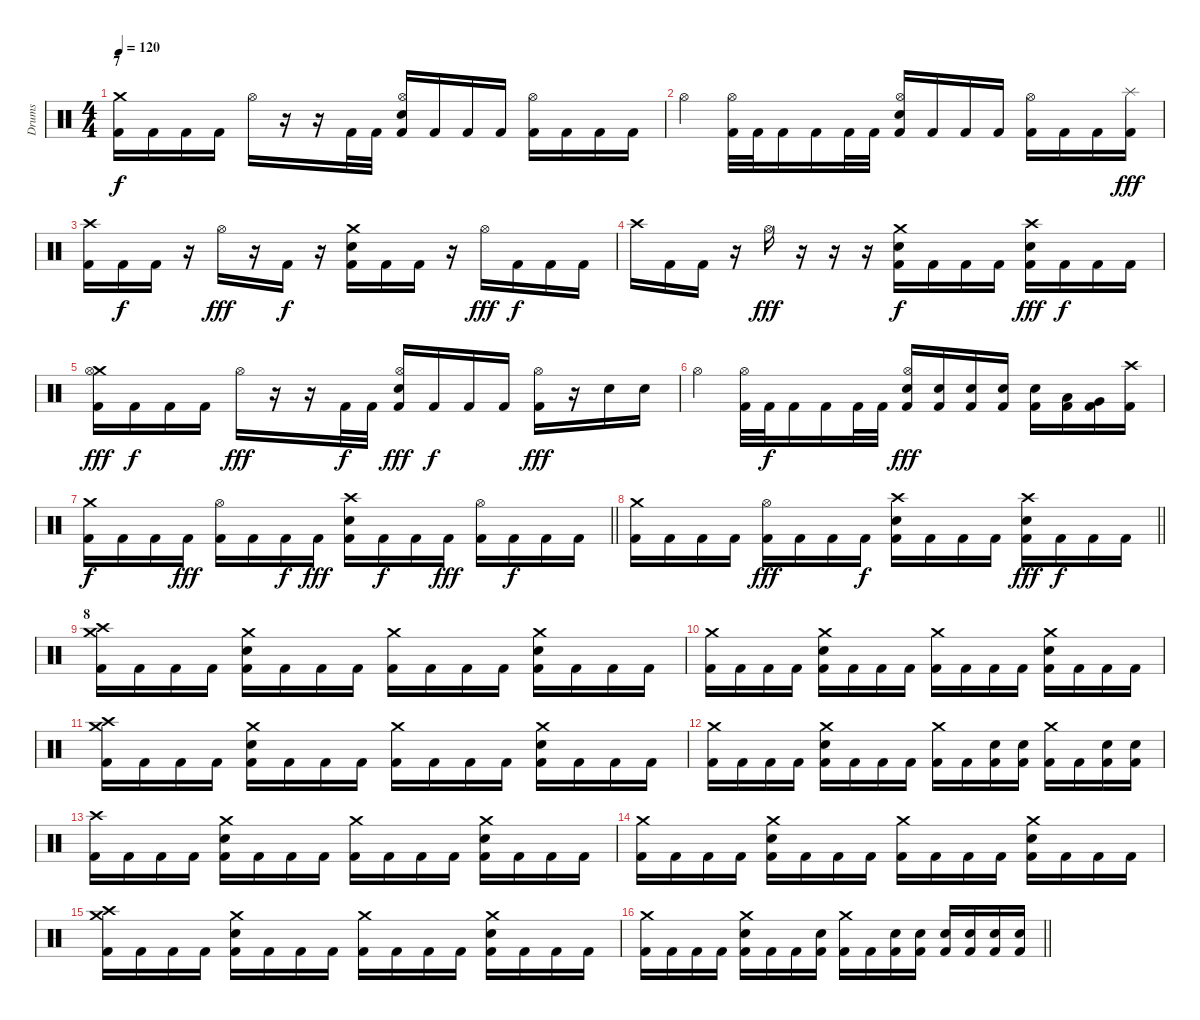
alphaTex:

\track ("Drums" "Drums") {instrument percussion}
\staff {score}
\articulation defaults
\ts (4 4)
\section ("" "7")
\tempo 120
\clef neutral
\ks c
("Crash medium (hit)" "Kick (hit) 2").16{dy f} "Kick (hit) 2".16 "Kick (hit) 2".16 "Kick (hit) 2".16 "Hi-Hat (open)".16 r.16 r.16 "Kick (hit) 2".32 "Kick (hit) 2".32 ("Hi-Hat (open)" "Electric Snare (hit)" "Kick (hit) 2").16 "Kick (hit) 2".16 "Kick (hit) 2".16 "Kick (hit) 2".16 ("Hi-Hat (open)" "Kick (hit) 2").16 "Kick (hit) 2".16 "Kick (hit) 2".16 "Kick (hit) 2".16 |
"Hi-Hat (open)".4 ("Hi-Hat (open)" "Kick (hit) 2").32 "Kick (hit) 2".32 "Kick (hit) 2".16 "Kick (hit) 2".16 "Kick (hit) 2".32 "Kick (hit) 2".32 ("Hi-Hat (open)" "Electric Snare (hit)" "Kick (hit) 2").16 "Kick (hit) 2".16 "Kick (hit) 2".16 "Kick (hit) 2".16 ("Hi-Hat (open)" "Kick (hit) 2").16 "Kick (hit) 2".16 "Kick (hit) 2".16 ("Splash (hit)" "Kick (hit) 2").16{dy fff} |
("Crash high (hit)" "Kick (hit) 2").16 "Kick (hit) 2".16{dy f} "Kick (hit) 2".16 r.16 "Hi-Hat (open)".16{dy fff} r.16 "Kick (hit) 2".16{dy f} r.16 ("Crash medium (hit)" "Electric Snare (hit)" "Kick (hit) 2").16 "Kick (hit) 2".16 "Kick (hit) 2".16 r.16 "Hi-Hat (open)".16{dy fff} "Kick (hit) 2".16{dy f} "Kick (hit) 2".16 "Kick (hit) 2".16 |
"Crash high (hit)".16 "Kick (hit) 2".16 "Kick (hit) 2".16 r.16 "Hi-Hat (open)".16{dy fff} r.16 r.16 r.16 ("Crash medium (hit)" "Electric Snare (hit)" "Kick (hit) 2").16{dy f} "Kick (hit) 2".16 "Kick (hit) 2".16 "Kick (hit) 2".16 ("Crash high (hit)" "Electric Snare (hit)" "Kick (hit) 2").16{dy fff} "Kick (hit) 2".16{dy f} "Kick (hit) 2".16 "Kick (hit) 2".16 |
("Crash medium (hit)" "Hi-Hat (open)" "Kick (hit) 2").16{dy fff} "Kick (hit) 2".16{dy f} "Kick (hit) 2".16 "Kick (hit) 2".16 "Hi-Hat (open)".16{dy fff} r.16 r.16 "Kick (hit) 2".32{dy f} "Kick (hit) 2".32 ("Hi-Hat (open)" "Electric Snare (hit)" "Kick (hit) 2").16{dy fff} "Kick (hit) 2".16{dy f} "Kick (hit) 2".16 "Kick (hit) 2".16 ("Hi-Hat (open)" "Kick (hit) 2").16{dy fff} r.16 "Electric Snare (hit)".16 "Electric Snare (hit)".16 |
"Hi-Hat (open)".4 ("Hi-Hat (open)" "Kick (hit) 2").32 "Kick (hit) 2".32{dy f} "Kick (hit) 2".16 "Kick (hit) 2".16 "Kick (hit) 2".32 "Kick (hit) 2".32 ("Hi-Hat (open)" "Electric Snare (hit)" "Kick (hit) 2").16{dy fff} ("Electric Snare (hit)" "Kick (hit) 2").16 ("Electric Snare (hit)" "Kick (hit) 2").16 ("Electric Snare (hit)" "Kick (hit) 2").16 ("Electric Snare (hit)" "Kick (hit) 2").16 ("Low Tom (hit)" "Kick (hit) 2").16 ("Very Low Tom (hit)" "Kick (hit) 2").16 ("Crash high (hit)" "Kick (hit) 2").16 |
\barLineRight lightlight
("Crash medium (hit)" "Kick (hit) 2").16{dy f} "Kick (hit) 2".16 "Kick (hit) 2".16 "Kick (hit) 2".16{dy fff} ("Hi-Hat (open)" "Kick (hit) 2").16 "Kick (hit) 2".16 "Kick (hit) 2".16{dy f} "Kick (hit) 2".16{dy fff} ("Crash high (hit)" "Electric Snare (hit)" "Kick (hit) 2").16 "Kick (hit) 2".16{dy f} "Kick (hit) 2".16 "Kick (hit) 2".16{dy fff} ("Hi-Hat (open)" "Kick (hit) 2").16 "Kick (hit) 2".16{dy f} "Kick (hit) 2".16 "Kick (hit) 2".16 |
\barLineRight lightlight
("Crash medium (hit)" "Kick (hit) 2").16 "Kick (hit) 2".16 "Kick (hit) 2".16 "Kick (hit) 2".16 ("Hi-Hat (open)" "Kick (hit) 2").16{dy fff} "Kick (hit) 2".16 "Kick (hit) 2".16 "Kick (hit) 2".16{dy f} ("Crash high (hit)" "Electric Snare (hit)" "Kick (hit) 2").16 "Kick (hit) 2".16 "Kick (hit) 2".16 "Kick (hit) 2".16 ("Crash high (hit)" "Electric Snare (hit)" "Kick (hit) 2").16{dy fff} "Kick (hit) 2".16{dy f} "Kick (hit) 2".16 "Kick (hit) 2".16 |
\section ("" "8")
("Crash medium (hit)" "Crash high (hit)" "Kick (hit) 2").16 "Kick (hit) 2".16 "Kick (hit) 2".16 "Kick (hit) 2".16 ("Crash medium (hit)" "Electric Snare (hit)" "Kick (hit) 2").16 "Kick (hit) 2".16 "Kick (hit) 2".16 "Kick (hit) 2".16 ("Crash medium (hit)" "Kick (hit) 2").16 "Kick (hit) 2".16 "Kick (hit) 2".16 "Kick (hit) 2".16 ("Crash medium (hit)" "Electric Snare (hit)" "Kick (hit) 2").16 "Kick (hit) 2".16 "Kick (hit) 2".16 "Kick (hit) 2".16 |
("Crash medium (hit)" "Kick (hit) 2").16 "Kick (hit) 2".16 "Kick (hit) 2".16 "Kick (hit) 2".16 ("Crash medium (hit)" "Electric Snare (hit)" "Kick (hit) 2").16 "Kick (hit) 2".16 "Kick (hit) 2".16 "Kick (hit) 2".16 ("Crash medium (hit)" "Kick (hit) 2").16 "Kick (hit) 2".16 "Kick (hit) 2".16 "Kick (hit) 2".16 ("Crash medium (hit)" "Electric Snare (hit)" "Kick (hit) 2").16 "Kick (hit) 2".16 "Kick (hit) 2".16 "Kick (hit) 2".16 |
("Crash medium (hit)" "Crash high (hit)" "Kick (hit) 2").16 "Kick (hit) 2".16 "Kick (hit) 2".16 "Kick (hit) 2".16 ("Crash medium (hit)" "Electric Snare (hit)" "Kick (hit) 2").16 "Kick (hit) 2".16 "Kick (hit) 2".16 "Kick (hit) 2".16 ("Crash medium (hit)" "Kick (hit) 2").16 "Kick (hit) 2".16 "Kick (hit) 2".16 "Kick (hit) 2".16 ("Crash medium (hit)" "Electric Snare (hit)" "Kick (hit) 2").16 "Kick (hit) 2".16 "Kick (hit) 2".16 "Kick (hit) 2".16 |
("Crash medium (hit)" "Kick (hit) 2").16 "Kick (hit) 2".16 "Kick (hit) 2".16 "Kick (hit) 2".16 ("Crash medium (hit)" "Electric Snare (hit)" "Kick (hit) 2").16 "Kick (hit) 2".16 "Kick (hit) 2".16 "Kick (hit) 2".16 ("Crash medium (hit)" "Kick (hit) 2").16 "Kick (hit) 2".16 ("Electric Snare (hit)" "Kick (hit) 2").16 ("Electric Snare (hit)" "Kick (hit) 2").16 ("Crash medium (hit)" "Kick (hit) 2").16 "Kick (hit) 2".16 ("Electric Snare (hit)" "Kick (hit) 2").16 ("Electric Snare (hit)" "Kick (hit) 2").16 |
("Crash high (hit)" "Kick (hit) 2").16 "Kick (hit) 2".16 "Kick (hit) 2".16 "Kick (hit) 2".16 ("Crash medium (hit)" "Electric Snare (hit)" "Kick (hit) 2").16 "Kick (hit) 2".16 "Kick (hit) 2".16 "Kick (hit) 2".16 ("Crash medium (hit)" "Kick (hit) 2").16 "Kick (hit) 2".16 "Kick (hit) 2".16 "Kick (hit) 2".16 ("Crash medium (hit)" "Electric Snare (hit)" "Kick (hit) 2").16 "Kick (hit) 2".16 "Kick (hit) 2".16 "Kick (hit) 2".16 |
("Crash medium (hit)" "Kick (hit) 2").16 "Kick (hit) 2".16 "Kick (hit) 2".16 "Kick (hit) 2".16 ("Crash medium (hit)" "Electric Snare (hit)" "Kick (hit) 2").16 "Kick (hit) 2".16 "Kick (hit) 2".16 "Kick (hit) 2".16 ("Crash medium (hit)" "Kick (hit) 2").16 "Kick (hit) 2".16 "Kick (hit) 2".16 "Kick (hit) 2".16 ("Crash medium (hit)" "Electric Snare (hit)" "Kick (hit) 2").16 "Kick (hit) 2".16 "Kick (hit) 2".16 "Kick (hit) 2".16 |
("Crash medium (hit)" "Crash high (hit)" "Kick (hit) 2").16 "Kick (hit) 2".16 "Kick (hit) 2".16 "Kick (hit) 2".16 ("Crash medium (hit)" "Electric Snare (hit)" "Kick (hit) 2").16 "Kick (hit) 2".16 "Kick (hit) 2".16 "Kick (hit) 2".16 ("Crash medium (hit)" "Kick (hit) 2").16 "Kick (hit) 2".16 "Kick (hit) 2".16 "Kick (hit) 2".16 ("Crash medium (hit)" "Electric Snare (hit)" "Kick (hit) 2").16 "Kick (hit) 2".16 "Kick (hit) 2".16 "Kick (hit) 2".16 |
\barLineRight lightlight
("Crash medium (hit)" "Kick (hit) 2").16 "Kick (hit) 2".16 "Kick (hit) 2".16 "Kick (hit) 2".16 ("Crash medium (hit)" "Electric Snare (hit)" "Kick (hit) 2").16 "Kick (hit) 2".16 "Kick (hit) 2".16 ("Electric Snare (hit)" "Kick (hit) 2").16 ("Crash medium (hit)" "Kick (hit) 2").16 "Kick (hit) 2".16 ("Electric Snare (hit)" "Kick (hit) 2").16 ("Electric Snare (hit)" "Kick (hit) 2").16 ("Electric Snare (hit)" "Kick (hit) 2").16 ("Electric Snare (hit)" "Kick (hit) 2").16 ("Electric Snare (hit)" "Kick (hit) 2").16 ("Electric Snare (hit)" "Kick (hit) 2").16
